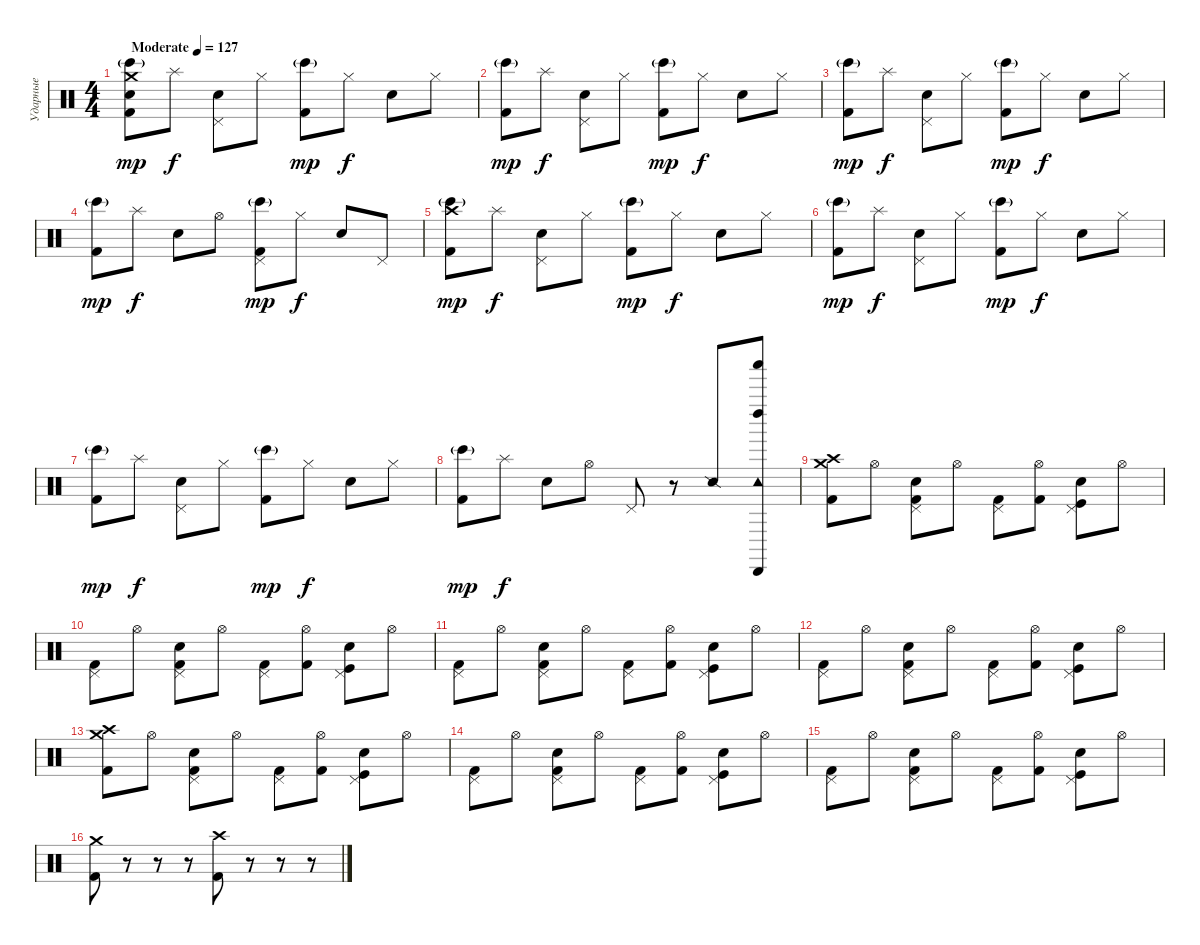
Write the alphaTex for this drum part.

\track ("Ударные" "Ударные") {instrument percussion}
\staff {score}
\articulation defaults
\ts (4 4)
\tempo (127 "Moderate")
\clef neutral
\ks c
("Crash medium (hit)" "Bongo High (hit)"{g} "Electric Snare (hit)" "Kick (hit) 2").8{dy mp} "Splash (hit)".8{dy f} ("Pedal Hi-Hat (hit)" "Snare (hit) 2").8 "Hi-Hat (closed)".8 ("Bongo High (hit)"{g} "Kick (hit) 2").8{dy mp} "Hi-Hat (closed)".8{dy f} "Snare (hit) 2".8 "Hi-Hat (closed)".8 |
("Bongo High (hit)"{g} "Kick (hit) 2").8{dy mp} "Splash (hit)".8{dy f} ("Pedal Hi-Hat (hit)" "Snare (hit) 2").8 "Hi-Hat (closed)".8 ("Bongo High (hit)"{g} "Kick (hit) 2").8{dy mp} "Hi-Hat (closed)".8{dy f} "Snare (hit) 2".8 "Hi-Hat (closed)".8 |
("Bongo High (hit)"{g} "Kick (hit) 2").8{dy mp} "Splash (hit)".8{dy f} ("Pedal Hi-Hat (hit)" "Snare (hit) 2").8 "Hi-Hat (closed)".8 ("Bongo High (hit)"{g} "Kick (hit) 2").8{dy mp} "Hi-Hat (closed)".8{dy f} "Snare (hit) 2".8 "Hi-Hat (closed)".8 |
("Bongo High (hit)"{g} "Kick (hit) 2").8{dy mp} "Splash (hit)".8{dy f} "Snare (hit) 2".8 "Hi-Hat (open)".8 ("Pedal Hi-Hat (hit)" "Bongo High (hit)"{g} "Kick (hit) 2").8{dy mp} "Hi-Hat (closed)".8{dy f} "Snare (hit) 2".8 "Pedal Hi-Hat (hit)".8 |
("Crash high (hit)" "Bongo High (hit)"{g} "Kick (hit) 2").8{dy mp} "Splash (hit)".8{dy f} ("Pedal Hi-Hat (hit)" "Snare (hit) 2").8 "Hi-Hat (closed)".8 ("Bongo High (hit)"{g} "Kick (hit) 2").8{dy mp} "Hi-Hat (closed)".8{dy f} "Snare (hit) 2".8 "Hi-Hat (closed)".8 |
("Bongo High (hit)"{g} "Kick (hit) 2").8{dy mp} "Splash (hit)".8{dy f} ("Pedal Hi-Hat (hit)" "Snare (hit) 2").8 "Hi-Hat (closed)".8 ("Bongo High (hit)"{g} "Kick (hit) 2").8{dy mp} "Hi-Hat (closed)".8{dy f} "Snare (hit) 2".8 "Hi-Hat (closed)".8 |
("Bongo High (hit)"{g} "Kick (hit) 2").8{dy mp} "Splash (hit)".8{dy f} ("Pedal Hi-Hat (hit)" "Snare (hit) 2").8 "Hi-Hat (closed)".8 ("Bongo High (hit)"{g} "Kick (hit) 2").8{dy mp} "Hi-Hat (closed)".8{dy f} "Snare (hit) 2".8 "Hi-Hat (closed)".8 |
("Bongo High (hit)"{g} "Kick (hit) 2").8{dy mp} "Splash (hit)".8{dy f} "Snare (hit) 2".8 "Hi-Hat (open)".8 "Pedal Hi-Hat (hit)".8 r.8 "Snare (side stick) 2".8 ("Tambourine (hit)" "Shaker (hit)" "Left Maraca (hit)" "Cabasa (hit)").8 |
("Crash medium (hit)" "Crash high (hit)" "Kick (hit) 2").8 "Hi-Hat (open)".8 ("Pedal Hi-Hat (hit)" "Snare (hit) 2" "Kick (hit) 2").8 "Hi-Hat (open)".8 ("Pedal Hi-Hat (hit)" "Kick (hit) 2").8 ("Hi-Hat (open)" "Kick (hit) 2").8 ("Pedal Hi-Hat (hit)" "Snare (hit) 2" "Kick (hit)").8 "Hi-Hat (open)".8 |
("Pedal Hi-Hat (hit)" "Kick (hit) 2").8 "Hi-Hat (open)".8 ("Pedal Hi-Hat (hit)" "Snare (hit) 2" "Kick (hit) 2").8 "Hi-Hat (open)".8 ("Pedal Hi-Hat (hit)" "Kick (hit) 2").8 ("Hi-Hat (open)" "Kick (hit) 2").8 ("Pedal Hi-Hat (hit)" "Snare (hit) 2" "Kick (hit)").8 "Hi-Hat (open)".8 |
("Pedal Hi-Hat (hit)" "Kick (hit) 2").8 "Hi-Hat (open)".8 ("Pedal Hi-Hat (hit)" "Snare (hit) 2" "Kick (hit) 2").8 "Hi-Hat (open)".8 ("Pedal Hi-Hat (hit)" "Kick (hit) 2").8 ("Hi-Hat (open)" "Kick (hit) 2").8 ("Pedal Hi-Hat (hit)" "Snare (hit) 2" "Kick (hit)").8 "Hi-Hat (open)".8 |
("Pedal Hi-Hat (hit)" "Kick (hit) 2").8 "Hi-Hat (open)".8 ("Pedal Hi-Hat (hit)" "Snare (hit) 2" "Kick (hit) 2").8 "Hi-Hat (open)".8 ("Pedal Hi-Hat (hit)" "Kick (hit) 2").8 ("Hi-Hat (open)" "Kick (hit) 2").8 ("Pedal Hi-Hat (hit)" "Snare (hit) 2" "Kick (hit)").8 "Hi-Hat (open)".8 |
("Crash medium (hit)" "Crash high (hit)" "Kick (hit) 2").8 "Hi-Hat (open)".8 ("Pedal Hi-Hat (hit)" "Snare (hit) 2" "Kick (hit) 2").8 "Hi-Hat (open)".8 ("Pedal Hi-Hat (hit)" "Kick (hit) 2").8 ("Hi-Hat (open)" "Kick (hit) 2").8 ("Pedal Hi-Hat (hit)" "Snare (hit) 2" "Kick (hit)").8 "Hi-Hat (open)".8 |
("Pedal Hi-Hat (hit)" "Kick (hit) 2").8 "Hi-Hat (open)".8 ("Pedal Hi-Hat (hit)" "Snare (hit) 2" "Kick (hit) 2").8 "Hi-Hat (open)".8 ("Pedal Hi-Hat (hit)" "Kick (hit) 2").8 ("Hi-Hat (open)" "Kick (hit) 2").8 ("Pedal Hi-Hat (hit)" "Snare (hit) 2" "Kick (hit)").8 "Hi-Hat (open)".8 |
("Pedal Hi-Hat (hit)" "Kick (hit) 2").8 "Hi-Hat (open)".8 ("Pedal Hi-Hat (hit)" "Snare (hit) 2" "Kick (hit) 2").8 "Hi-Hat (open)".8 ("Pedal Hi-Hat (hit)" "Kick (hit) 2").8 ("Hi-Hat (open)" "Kick (hit) 2").8 ("Pedal Hi-Hat (hit)" "Snare (hit) 2" "Kick (hit)").8 "Hi-Hat (open)".8 |
("Crash medium (hit)" "Kick (hit) 2").8 r.8 r.8 r.8 ("Crash high (hit)" "Kick (hit) 2").8 r.8 r.8 r.8
